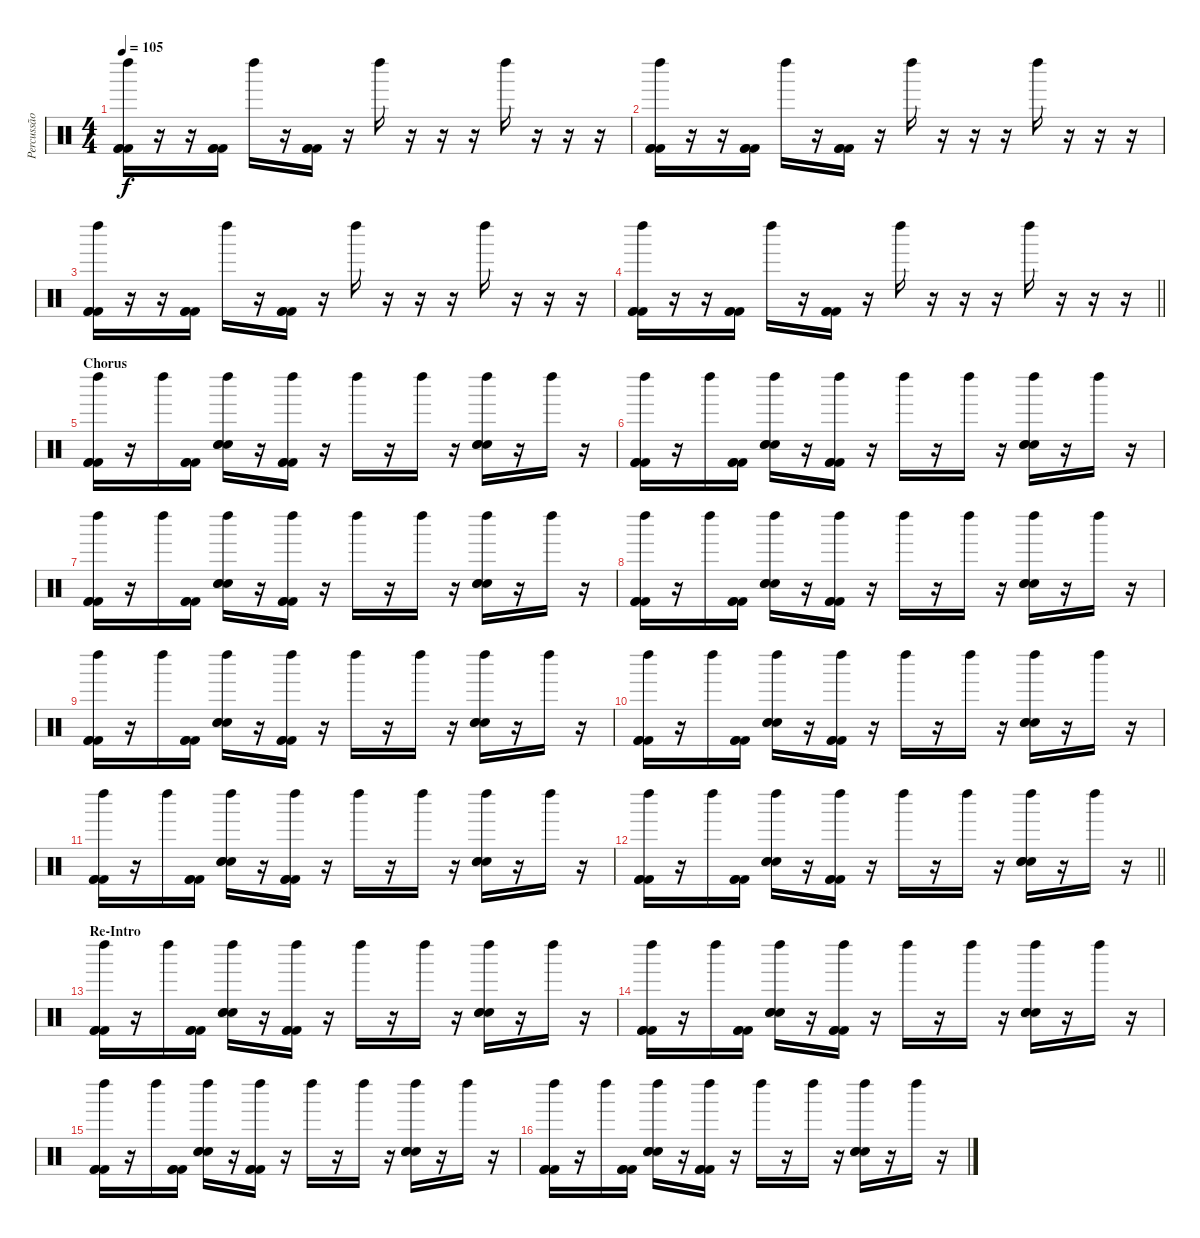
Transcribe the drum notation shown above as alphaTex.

\track ("Percussão" "Percussão") {instrument percussion}
\staff {score}
\articulation defaults
\ts (4 4)
\tempo 105
\clef neutral
\ks c
("Left Maraca (hit)" "Kick (hit) 2" "Kick (hit) 2" "Kick (hit) 2").16{dy f} r.16 r.16 ("Kick (hit) 2" "Kick (hit) 2" "Kick (hit) 2").16 "Left Maraca (hit)".16 r.16 ("Kick (hit) 2" "Kick (hit) 2" "Kick (hit) 2").16 r.16 "Left Maraca (hit)".16 r.16 r.16 r.16 "Left Maraca (hit)".16 r.16 r.16 r.16 |
("Left Maraca (hit)" "Kick (hit) 2" "Kick (hit) 2" "Kick (hit) 2").16 r.16 r.16 ("Kick (hit) 2" "Kick (hit) 2" "Kick (hit) 2").16 "Left Maraca (hit)".16 r.16 ("Kick (hit) 2" "Kick (hit) 2" "Kick (hit) 2").16 r.16 "Left Maraca (hit)".16 r.16 r.16 r.16 "Left Maraca (hit)".16 r.16 r.16 r.16 |
("Left Maraca (hit)" "Kick (hit) 2" "Kick (hit) 2" "Kick (hit) 2").16 r.16 r.16 ("Kick (hit) 2" "Kick (hit) 2" "Kick (hit) 2").16 "Left Maraca (hit)".16 r.16 ("Kick (hit) 2" "Kick (hit) 2" "Kick (hit) 2").16 r.16 "Left Maraca (hit)".16 r.16 r.16 r.16 "Left Maraca (hit)".16 r.16 r.16 r.16 |
\barLineRight lightlight
("Left Maraca (hit)" "Kick (hit) 2" "Kick (hit) 2" "Kick (hit) 2").16 r.16 r.16 ("Kick (hit) 2" "Kick (hit) 2" "Kick (hit) 2").16 "Left Maraca (hit)".16 r.16 ("Kick (hit) 2" "Kick (hit) 2" "Kick (hit) 2").16 r.16 "Left Maraca (hit)".16 r.16 r.16 r.16 "Left Maraca (hit)".16 r.16 r.16 r.16 |
\section ("" "Chorus")
("Left Maraca (hit)" "Kick (hit) 2" "Kick (hit) 2" "Kick (hit) 2").16 r.16 "Left Maraca (hit)".16 ("Kick (hit) 2" "Kick (hit) 2" "Kick (hit) 2").16 ("Left Maraca (hit)" "Hand Clap (hit)" "Hand Clap (hit)" "Hand Clap (hit)").16 r.16 ("Left Maraca (hit)" "Kick (hit) 2" "Kick (hit) 2" "Kick (hit) 2").16 r.16 "Left Maraca (hit)".16 r.16 "Left Maraca (hit)".16 r.16 ("Left Maraca (hit)" "Hand Clap (hit)" "Hand Clap (hit)" "Hand Clap (hit)").16 r.16 "Left Maraca (hit)".16 r.16 |
("Left Maraca (hit)" "Kick (hit) 2" "Kick (hit) 2" "Kick (hit) 2").16 r.16 "Left Maraca (hit)".16 ("Kick (hit) 2" "Kick (hit) 2" "Kick (hit) 2").16 ("Left Maraca (hit)" "Hand Clap (hit)" "Hand Clap (hit)" "Hand Clap (hit)").16 r.16 ("Left Maraca (hit)" "Kick (hit) 2" "Kick (hit) 2" "Kick (hit) 2").16 r.16 "Left Maraca (hit)".16 r.16 "Left Maraca (hit)".16 r.16 ("Left Maraca (hit)" "Hand Clap (hit)" "Hand Clap (hit)" "Hand Clap (hit)").16 r.16 "Left Maraca (hit)".16 r.16 |
("Left Maraca (hit)" "Kick (hit) 2" "Kick (hit) 2" "Kick (hit) 2").16 r.16 "Left Maraca (hit)".16 ("Kick (hit) 2" "Kick (hit) 2" "Kick (hit) 2").16 ("Left Maraca (hit)" "Hand Clap (hit)" "Hand Clap (hit)" "Hand Clap (hit)").16 r.16 ("Left Maraca (hit)" "Kick (hit) 2" "Kick (hit) 2" "Kick (hit) 2").16 r.16 "Left Maraca (hit)".16 r.16 "Left Maraca (hit)".16 r.16 ("Left Maraca (hit)" "Hand Clap (hit)" "Hand Clap (hit)" "Hand Clap (hit)").16 r.16 "Left Maraca (hit)".16 r.16 |
("Left Maraca (hit)" "Kick (hit) 2" "Kick (hit) 2" "Kick (hit) 2").16 r.16 "Left Maraca (hit)".16 ("Kick (hit) 2" "Kick (hit) 2" "Kick (hit) 2").16 ("Left Maraca (hit)" "Hand Clap (hit)" "Hand Clap (hit)" "Hand Clap (hit)").16 r.16 ("Left Maraca (hit)" "Kick (hit) 2" "Kick (hit) 2" "Kick (hit) 2").16 r.16 "Left Maraca (hit)".16 r.16 "Left Maraca (hit)".16 r.16 ("Left Maraca (hit)" "Hand Clap (hit)" "Hand Clap (hit)" "Hand Clap (hit)").16 r.16 "Left Maraca (hit)".16 r.16 |
("Left Maraca (hit)" "Kick (hit) 2" "Kick (hit) 2" "Kick (hit) 2").16 r.16 "Left Maraca (hit)".16 ("Kick (hit) 2" "Kick (hit) 2" "Kick (hit) 2").16 ("Left Maraca (hit)" "Hand Clap (hit)" "Hand Clap (hit)" "Hand Clap (hit)").16 r.16 ("Left Maraca (hit)" "Kick (hit) 2" "Kick (hit) 2" "Kick (hit) 2").16 r.16 "Left Maraca (hit)".16 r.16 "Left Maraca (hit)".16 r.16 ("Left Maraca (hit)" "Hand Clap (hit)" "Hand Clap (hit)" "Hand Clap (hit)").16 r.16 "Left Maraca (hit)".16 r.16 |
("Left Maraca (hit)" "Kick (hit) 2" "Kick (hit) 2" "Kick (hit) 2").16 r.16 "Left Maraca (hit)".16 ("Kick (hit) 2" "Kick (hit) 2" "Kick (hit) 2").16 ("Left Maraca (hit)" "Hand Clap (hit)" "Hand Clap (hit)" "Hand Clap (hit)").16 r.16 ("Left Maraca (hit)" "Kick (hit) 2" "Kick (hit) 2" "Kick (hit) 2").16 r.16 "Left Maraca (hit)".16 r.16 "Left Maraca (hit)".16 r.16 ("Left Maraca (hit)" "Hand Clap (hit)" "Hand Clap (hit)" "Hand Clap (hit)").16 r.16 "Left Maraca (hit)".16 r.16 |
("Left Maraca (hit)" "Kick (hit) 2" "Kick (hit) 2" "Kick (hit) 2").16 r.16 "Left Maraca (hit)".16 ("Kick (hit) 2" "Kick (hit) 2" "Kick (hit) 2").16 ("Left Maraca (hit)" "Hand Clap (hit)" "Hand Clap (hit)" "Hand Clap (hit)").16 r.16 ("Left Maraca (hit)" "Kick (hit) 2" "Kick (hit) 2" "Kick (hit) 2").16 r.16 "Left Maraca (hit)".16 r.16 "Left Maraca (hit)".16 r.16 ("Left Maraca (hit)" "Hand Clap (hit)" "Hand Clap (hit)" "Hand Clap (hit)").16 r.16 "Left Maraca (hit)".16 r.16 |
\barLineRight lightlight
("Left Maraca (hit)" "Kick (hit) 2" "Kick (hit) 2" "Kick (hit) 2").16 r.16 "Left Maraca (hit)".16 ("Kick (hit) 2" "Kick (hit) 2" "Kick (hit) 2").16 ("Left Maraca (hit)" "Hand Clap (hit)" "Hand Clap (hit)" "Hand Clap (hit)").16 r.16 ("Left Maraca (hit)" "Kick (hit) 2" "Kick (hit) 2" "Kick (hit) 2").16 r.16 "Left Maraca (hit)".16 r.16 "Left Maraca (hit)".16 r.16 ("Left Maraca (hit)" "Hand Clap (hit)" "Hand Clap (hit)" "Hand Clap (hit)").16 r.16 "Left Maraca (hit)".16 r.16 |
\section ("" "Re-Intro")
("Left Maraca (hit)" "Kick (hit) 2" "Kick (hit) 2" "Kick (hit) 2").16 r.16 "Left Maraca (hit)".16 ("Kick (hit) 2" "Kick (hit) 2" "Kick (hit) 2").16 ("Left Maraca (hit)" "Hand Clap (hit)" "Hand Clap (hit)" "Hand Clap (hit)").16 r.16 ("Left Maraca (hit)" "Kick (hit) 2" "Kick (hit) 2" "Kick (hit) 2").16 r.16 "Left Maraca (hit)".16 r.16 "Left Maraca (hit)".16 r.16 ("Left Maraca (hit)" "Hand Clap (hit)" "Hand Clap (hit)" "Hand Clap (hit)").16 r.16 "Left Maraca (hit)".16 r.16 |
("Left Maraca (hit)" "Kick (hit) 2" "Kick (hit) 2" "Kick (hit) 2").16 r.16 "Left Maraca (hit)".16 ("Kick (hit) 2" "Kick (hit) 2" "Kick (hit) 2").16 ("Left Maraca (hit)" "Hand Clap (hit)" "Hand Clap (hit)" "Hand Clap (hit)").16 r.16 ("Left Maraca (hit)" "Kick (hit) 2" "Kick (hit) 2" "Kick (hit) 2").16 r.16 "Left Maraca (hit)".16 r.16 "Left Maraca (hit)".16 r.16 ("Left Maraca (hit)" "Hand Clap (hit)" "Hand Clap (hit)" "Hand Clap (hit)").16 r.16 "Left Maraca (hit)".16 r.16 |
("Left Maraca (hit)" "Kick (hit) 2" "Kick (hit) 2" "Kick (hit) 2").16 r.16 "Left Maraca (hit)".16 ("Kick (hit) 2" "Kick (hit) 2" "Kick (hit) 2").16 ("Left Maraca (hit)" "Hand Clap (hit)" "Hand Clap (hit)" "Hand Clap (hit)").16 r.16 ("Left Maraca (hit)" "Kick (hit) 2" "Kick (hit) 2" "Kick (hit) 2").16 r.16 "Left Maraca (hit)".16 r.16 "Left Maraca (hit)".16 r.16 ("Left Maraca (hit)" "Hand Clap (hit)" "Hand Clap (hit)" "Hand Clap (hit)").16 r.16 "Left Maraca (hit)".16 r.16 |
("Left Maraca (hit)" "Kick (hit) 2" "Kick (hit) 2" "Kick (hit) 2").16 r.16 "Left Maraca (hit)".16 ("Kick (hit) 2" "Kick (hit) 2" "Kick (hit) 2").16 ("Left Maraca (hit)" "Hand Clap (hit)" "Hand Clap (hit)" "Hand Clap (hit)").16 r.16 ("Left Maraca (hit)" "Kick (hit) 2" "Kick (hit) 2" "Kick (hit) 2").16 r.16 "Left Maraca (hit)".16 r.16 "Left Maraca (hit)".16 r.16 ("Left Maraca (hit)" "Hand Clap (hit)" "Hand Clap (hit)" "Hand Clap (hit)").16 r.16 "Left Maraca (hit)".16 r.16
